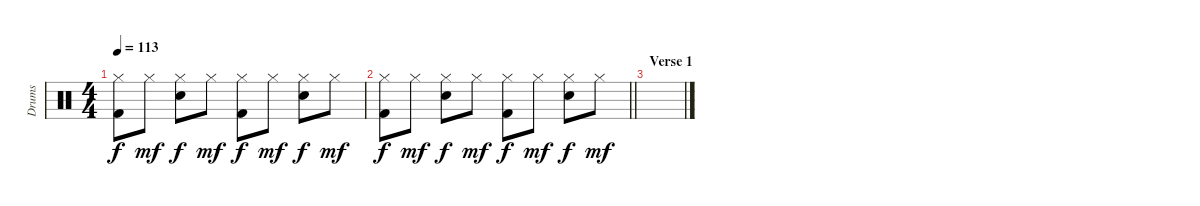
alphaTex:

\track ("Drums" "Drums") {instrument percussion}
\staff {score}
\articulation defaults
\ts (4 4)
\tempo 113
\clef neutral
\ks c
("Hi-Hat (closed)" "Kick (hit) 2").8{dy f} "Hi-Hat (closed)".8{dy mf} ("Hi-Hat (closed)" "Snare (hit) 2").8{dy f} "Hi-Hat (closed)".8{dy mf} ("Hi-Hat (closed)" "Kick (hit) 2").8{dy f} "Hi-Hat (closed)".8{dy mf} ("Hi-Hat (closed)" "Snare (hit) 2").8{dy f} "Hi-Hat (closed)".8{dy mf} |
\barLineRight lightlight
("Hi-Hat (closed)" "Kick (hit) 2").8{dy f} "Hi-Hat (closed)".8{dy mf} ("Hi-Hat (closed)" "Snare (hit) 2").8{dy f} "Hi-Hat (closed)".8{dy mf} ("Hi-Hat (closed)" "Kick (hit) 2").8{dy f} "Hi-Hat (closed)".8{dy mf} ("Hi-Hat (closed)" "Snare (hit) 2").8{dy f} "Hi-Hat (closed)".8{dy mf} |
\section ("" "Verse 1")
